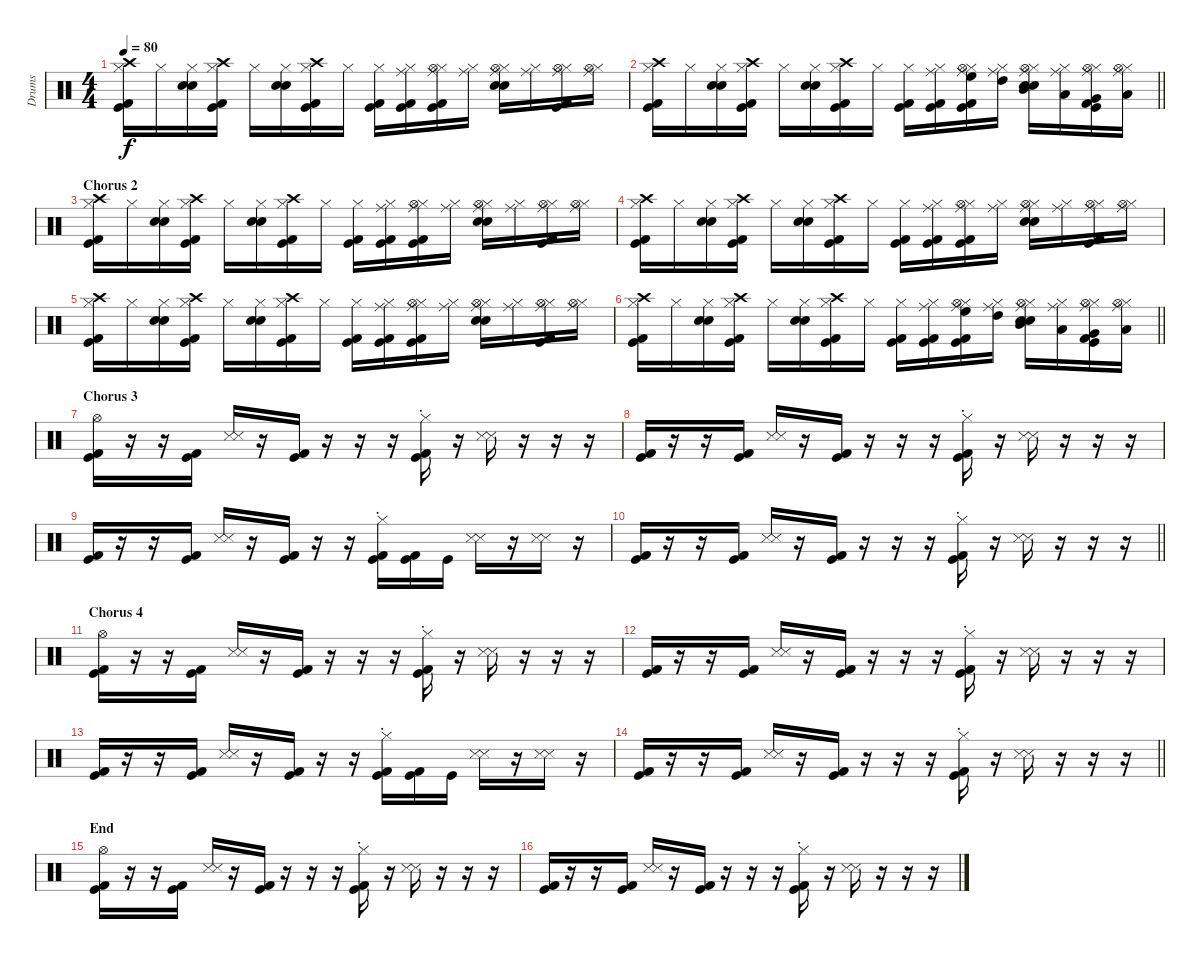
\track ("Drums" "Drums") {instrument percussion}
\staff {score}
\articulation defaults
\ts (4 4)
\tempo 80
\clef neutral
\ks c
("Crash high (hit)" "Hi-Hat (closed)" "Kick (hit) 2" "Kick (hit)").16{dy f} "Hi-Hat (closed)".16 ("Hi-Hat (closed)" "Snare (hit) 2" "Electric Snare (hit)").16 ("Crash high (hit)" "Hi-Hat (closed)" "Kick (hit) 2" "Kick (hit)").16 "Hi-Hat (closed)".16 ("Hi-Hat (closed)" "Snare (hit) 2" "Electric Snare (hit)").16 ("Crash high (hit)" "Hi-Hat (closed)" "Kick (hit) 2" "Kick (hit)").16 "Hi-Hat (closed)".16 ("Hi-Hat (closed)" "Kick (hit) 2" "Kick (hit)").16 ("Ride (middle)" "Hi-Hat (closed)" "Kick (hit) 2" "Kick (hit)").16 ("Ride (middle)" "Hi-Hat (closed)" "Hi-Hat (open)" "Kick (hit) 2" "Kick (hit)").16 ("Ride (middle)" "Hi-Hat (closed)").16 ("Ride (middle)" "Hi-Hat (closed)" "Snare (hit) 2" "Electric Snare (hit)" "Hi-Hat (open)").16 ("Ride (middle)" "Hi-Hat (closed)").16 ("Ride (middle)" "Hi-Hat (closed)" "Hi-Hat (open)" "Kick (hit) 2" "Kick (hit)").16 ("Ride (middle)" "Hi-Hat (closed)" "Hi-Hat (open)").16 |
\barLineRight lightlight
("Crash high (hit)" "Hi-Hat (closed)" "Kick (hit) 2" "Kick (hit)").16 "Hi-Hat (closed)".16 ("Hi-Hat (closed)" "Snare (hit) 2" "Electric Snare (hit)").16 ("Crash high (hit)" "Hi-Hat (closed)" "Kick (hit) 2" "Kick (hit)").16 "Hi-Hat (closed)".16 ("Hi-Hat (closed)" "Snare (hit) 2" "Electric Snare (hit)").16 ("Crash high (hit)" "Hi-Hat (closed)" "Kick (hit) 2" "Kick (hit)").16 "Hi-Hat (closed)".16 ("Hi-Hat (closed)" "Kick (hit) 2" "Kick (hit)").16 ("Ride (middle)" "Hi-Hat (closed)" "Kick (hit) 2" "Kick (hit)").16 ("Ride (middle)" "Hi-Hat (closed)" "Hi-Hat (open)" "High Floor Tom (hit)" "Kick (hit) 2" "Kick (hit)").16 ("Ride (middle)" "Hi-Hat (closed)" "High Tom (hit)").16 ("Ride (middle)" "Hi-Hat (closed)" "Snare (hit) 2" "Electric Snare (hit)" "Hi-Hat (open)" "Mid Tom (hit)").16 ("Ride (middle)" "Hi-Hat (closed)" "Low Tom (hit)").16 ("Ride (middle)" "Hi-Hat (closed)" "Hi-Hat (open)" "Very Low Tom (hit)" "Kick (hit) 2" "Kick (hit)").16 ("Ride (middle)" "Hi-Hat (closed)" "Hi-Hat (open)" "Low Floor Tom (hit)").16 |
\section ("" "Chorus 2")
("Crash high (hit)" "Hi-Hat (closed)" "Kick (hit) 2" "Kick (hit)").16 "Hi-Hat (closed)".16 ("Hi-Hat (closed)" "Snare (hit) 2" "Electric Snare (hit)").16 ("Crash high (hit)" "Hi-Hat (closed)" "Kick (hit) 2" "Kick (hit)").16 "Hi-Hat (closed)".16 ("Hi-Hat (closed)" "Snare (hit) 2" "Electric Snare (hit)").16 ("Crash high (hit)" "Hi-Hat (closed)" "Kick (hit) 2" "Kick (hit)").16 "Hi-Hat (closed)".16 ("Hi-Hat (closed)" "Kick (hit) 2" "Kick (hit)").16 ("Ride (middle)" "Hi-Hat (closed)" "Kick (hit) 2" "Kick (hit)").16 ("Ride (middle)" "Hi-Hat (closed)" "Hi-Hat (open)" "Kick (hit) 2" "Kick (hit)").16 ("Ride (middle)" "Hi-Hat (closed)").16 ("Ride (middle)" "Hi-Hat (closed)" "Snare (hit) 2" "Electric Snare (hit)" "Hi-Hat (open)").16 ("Ride (middle)" "Hi-Hat (closed)").16 ("Ride (middle)" "Hi-Hat (closed)" "Hi-Hat (open)" "Kick (hit) 2" "Kick (hit)").16 ("Ride (middle)" "Hi-Hat (closed)" "Hi-Hat (open)").16 |
("Crash high (hit)" "Hi-Hat (closed)" "Kick (hit) 2" "Kick (hit)").16 "Hi-Hat (closed)".16 ("Hi-Hat (closed)" "Snare (hit) 2" "Electric Snare (hit)").16 ("Crash high (hit)" "Hi-Hat (closed)" "Kick (hit) 2" "Kick (hit)").16 "Hi-Hat (closed)".16 ("Hi-Hat (closed)" "Snare (hit) 2" "Electric Snare (hit)").16 ("Crash high (hit)" "Hi-Hat (closed)" "Kick (hit) 2" "Kick (hit)").16 "Hi-Hat (closed)".16 ("Hi-Hat (closed)" "Kick (hit) 2" "Kick (hit)").16 ("Ride (middle)" "Hi-Hat (closed)" "Kick (hit) 2" "Kick (hit)").16 ("Ride (middle)" "Hi-Hat (closed)" "Hi-Hat (open)" "Kick (hit) 2" "Kick (hit)").16 ("Ride (middle)" "Hi-Hat (closed)").16 ("Ride (middle)" "Hi-Hat (closed)" "Snare (hit) 2" "Electric Snare (hit)" "Hi-Hat (open)").16 ("Ride (middle)" "Hi-Hat (closed)").16 ("Ride (middle)" "Hi-Hat (closed)" "Hi-Hat (open)" "Kick (hit) 2" "Kick (hit)").16 ("Ride (middle)" "Hi-Hat (closed)" "Hi-Hat (open)").16 |
("Crash high (hit)" "Hi-Hat (closed)" "Kick (hit) 2" "Kick (hit)").16 "Hi-Hat (closed)".16 ("Hi-Hat (closed)" "Snare (hit) 2" "Electric Snare (hit)").16 ("Crash high (hit)" "Hi-Hat (closed)" "Kick (hit) 2" "Kick (hit)").16 "Hi-Hat (closed)".16 ("Hi-Hat (closed)" "Snare (hit) 2" "Electric Snare (hit)").16 ("Crash high (hit)" "Hi-Hat (closed)" "Kick (hit) 2" "Kick (hit)").16 "Hi-Hat (closed)".16 ("Hi-Hat (closed)" "Kick (hit) 2" "Kick (hit)").16 ("Ride (middle)" "Hi-Hat (closed)" "Kick (hit) 2" "Kick (hit)").16 ("Ride (middle)" "Hi-Hat (closed)" "Hi-Hat (open)" "Kick (hit) 2" "Kick (hit)").16 ("Ride (middle)" "Hi-Hat (closed)").16 ("Ride (middle)" "Hi-Hat (closed)" "Snare (hit) 2" "Electric Snare (hit)" "Hi-Hat (open)").16 ("Ride (middle)" "Hi-Hat (closed)").16 ("Ride (middle)" "Hi-Hat (closed)" "Hi-Hat (open)" "Kick (hit) 2" "Kick (hit)").16 ("Ride (middle)" "Hi-Hat (closed)" "Hi-Hat (open)").16 |
\barLineRight lightlight
("Crash high (hit)" "Hi-Hat (closed)" "Kick (hit) 2" "Kick (hit)").16 "Hi-Hat (closed)".16 ("Hi-Hat (closed)" "Snare (hit) 2" "Electric Snare (hit)").16 ("Crash high (hit)" "Hi-Hat (closed)" "Kick (hit) 2" "Kick (hit)").16 "Hi-Hat (closed)".16 ("Hi-Hat (closed)" "Snare (hit) 2" "Electric Snare (hit)").16 ("Crash high (hit)" "Hi-Hat (closed)" "Kick (hit) 2" "Kick (hit)").16 "Hi-Hat (closed)".16 ("Hi-Hat (closed)" "Kick (hit) 2" "Kick (hit)").16 ("Ride (middle)" "Hi-Hat (closed)" "Kick (hit) 2" "Kick (hit)").16 ("Ride (middle)" "Hi-Hat (closed)" "Hi-Hat (open)" "High Floor Tom (hit)" "Kick (hit) 2" "Kick (hit)").16 ("Ride (middle)" "Hi-Hat (closed)" "High Tom (hit)").16 ("Ride (middle)" "Hi-Hat (closed)" "Snare (hit) 2" "Electric Snare (hit)" "Hi-Hat (open)" "Mid Tom (hit)").16 ("Ride (middle)" "Hi-Hat (closed)" "Low Tom (hit)").16 ("Ride (middle)" "Hi-Hat (closed)" "Hi-Hat (open)" "Very Low Tom (hit)" "Kick (hit) 2" "Kick (hit)").16 ("Ride (middle)" "Hi-Hat (closed)" "Hi-Hat (open)" "Low Floor Tom (hit)").16 |
\section ("" "Chorus 3")
("Hi-Hat (open)" "Kick (hit) 2" "Kick (hit)").16 r.16 r.16 ("Kick (hit) 2" "Kick (hit)").16 ("Snare (side stick) 3" "Snare (side stick) 3").16 r.16 ("Kick (hit) 2" "Kick (hit)").16 r.16 r.16 r.16 ("Hi-Hat (closed)"{st} "Kick (hit) 2" "Kick (hit)").16 r.16 ("Snare (side stick) 3" "Snare (side stick) 3").16 r.16 r.16 r.16 |
("Kick (hit) 2" "Kick (hit)").16 r.16 r.16 ("Kick (hit) 2" "Kick (hit)").16 ("Snare (side stick) 3" "Snare (side stick) 3").16 r.16 ("Kick (hit) 2" "Kick (hit)").16 r.16 r.16 r.16 ("Hi-Hat (closed)"{st} "Kick (hit) 2" "Kick (hit)").16 r.16 ("Snare (side stick) 3" "Snare (side stick) 3").16 r.16 r.16 r.16 |
("Kick (hit) 2" "Kick (hit)").16 r.16 r.16 ("Kick (hit) 2" "Kick (hit)").16 ("Snare (side stick) 3" "Snare (side stick) 3").16 r.16 ("Kick (hit) 2" "Kick (hit)").16 r.16 r.16 ("Hi-Hat (closed)"{st} "Kick (hit) 2" "Kick (hit)").16 ("Kick (hit) 2" "Kick (hit)").16 "Kick (hit)".16 ("Snare (side stick) 3" "Snare (side stick) 3").16 r.16 ("Snare (side stick) 3" "Snare (side stick) 3").16 r.16 |
\barLineRight lightlight
("Kick (hit) 2" "Kick (hit)").16 r.16 r.16 ("Kick (hit) 2" "Kick (hit)").16 ("Snare (side stick) 3" "Snare (side stick) 3").16 r.16 ("Kick (hit) 2" "Kick (hit)").16 r.16 r.16 r.16 ("Hi-Hat (closed)"{st} "Kick (hit) 2" "Kick (hit)").16 r.16 ("Snare (side stick) 3" "Snare (side stick) 3").16 r.16 r.16 r.16 |
\section ("" "Chorus 4")
("Hi-Hat (open)" "Kick (hit) 2" "Kick (hit)").16 r.16 r.16 ("Kick (hit) 2" "Kick (hit)").16 ("Snare (side stick) 3" "Snare (side stick) 3").16 r.16 ("Kick (hit) 2" "Kick (hit)").16 r.16 r.16 r.16 ("Hi-Hat (closed)"{st} "Kick (hit) 2" "Kick (hit)").16 r.16 ("Snare (side stick) 3" "Snare (side stick) 3").16 r.16 r.16 r.16 |
("Kick (hit) 2" "Kick (hit)").16 r.16 r.16 ("Kick (hit) 2" "Kick (hit)").16 ("Snare (side stick) 3" "Snare (side stick) 3").16 r.16 ("Kick (hit) 2" "Kick (hit)").16 r.16 r.16 r.16 ("Hi-Hat (closed)"{st} "Kick (hit) 2" "Kick (hit)").16 r.16 ("Snare (side stick) 3" "Snare (side stick) 3").16 r.16 r.16 r.16 |
("Kick (hit) 2" "Kick (hit)").16 r.16 r.16 ("Kick (hit) 2" "Kick (hit)").16 ("Snare (side stick) 3" "Snare (side stick) 3").16 r.16 ("Kick (hit) 2" "Kick (hit)").16 r.16 r.16 ("Hi-Hat (closed)"{st} "Kick (hit) 2" "Kick (hit)").16 ("Kick (hit) 2" "Kick (hit)").16 "Kick (hit)".16 ("Snare (side stick) 3" "Snare (side stick) 3").16 r.16 ("Snare (side stick) 3" "Snare (side stick) 3").16 r.16 |
\barLineRight lightlight
("Kick (hit) 2" "Kick (hit)").16 r.16 r.16 ("Kick (hit) 2" "Kick (hit)").16 ("Snare (side stick) 3" "Snare (side stick) 3").16 r.16 ("Kick (hit) 2" "Kick (hit)").16 r.16 r.16 r.16 ("Hi-Hat (closed)"{st} "Kick (hit) 2" "Kick (hit)").16 r.16 ("Snare (side stick) 3" "Snare (side stick) 3").16 r.16 r.16 r.16 |
\section ("" "End")
("Hi-Hat (open)" "Kick (hit) 2" "Kick (hit)").16 r.16 r.16 ("Kick (hit) 2" "Kick (hit)").16 ("Snare (side stick) 3" "Snare (side stick) 3").16 r.16 ("Kick (hit) 2" "Kick (hit)").16 r.16 r.16 r.16 ("Hi-Hat (closed)"{st} "Kick (hit) 2" "Kick (hit)").16 r.16 ("Snare (side stick) 3" "Snare (side stick) 3").16 r.16 r.16 r.16 |
("Kick (hit) 2" "Kick (hit)").16 r.16 r.16 ("Kick (hit) 2" "Kick (hit)").16 ("Snare (side stick) 3" "Snare (side stick) 3").16 r.16 ("Kick (hit) 2" "Kick (hit)").16 r.16 r.16 r.16 ("Hi-Hat (closed)"{st} "Kick (hit) 2" "Kick (hit)").16 r.16 ("Snare (side stick) 3" "Snare (side stick) 3").16 r.16 r.16 r.16
